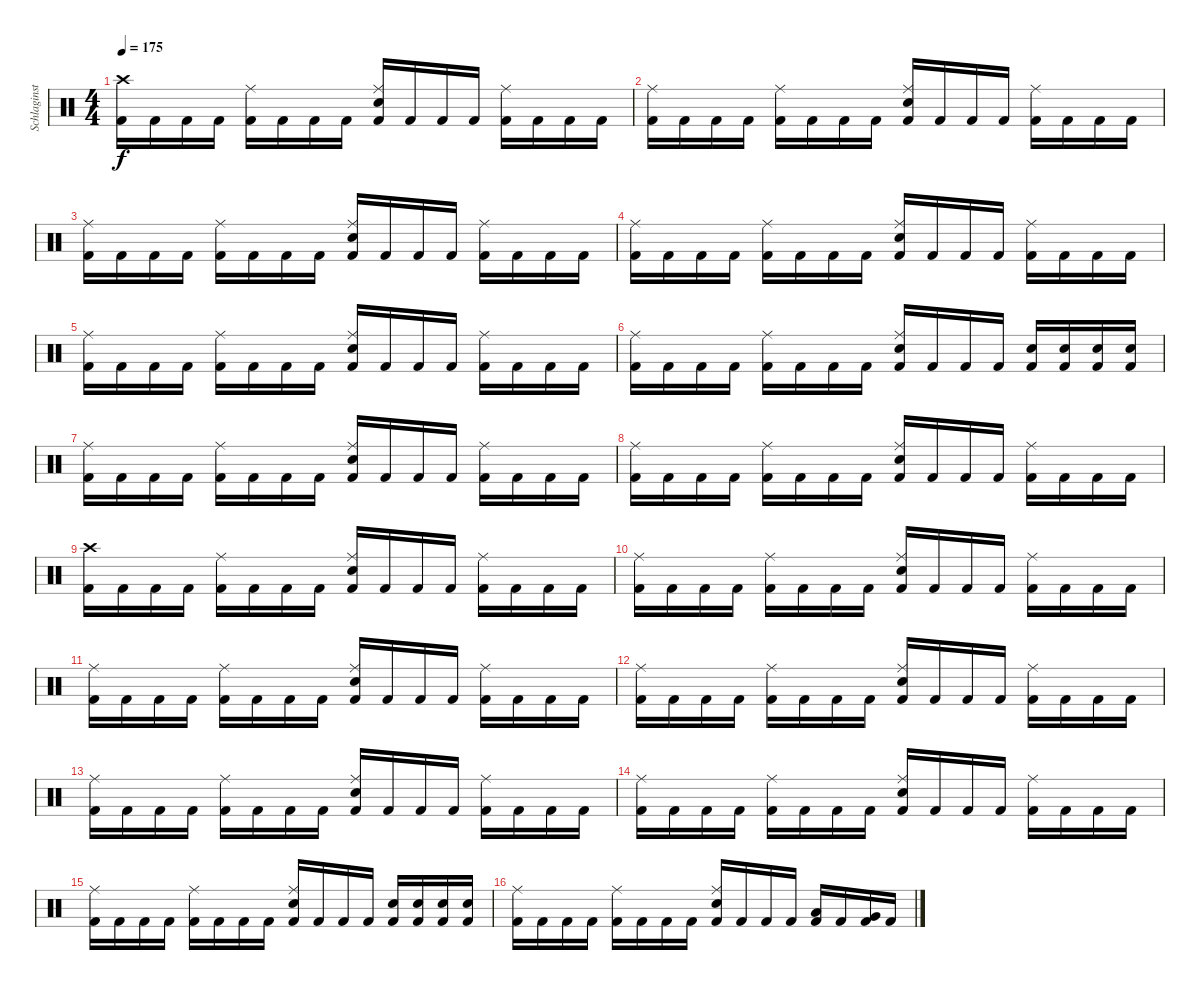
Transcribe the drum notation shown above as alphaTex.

\track ("Schlaginstrumente - Auswahl" "Schlaginst") {instrument percussion}
\staff {score}
\articulation defaults
\ts (4 4)
\tempo 175
\clef neutral
\ks c
("Crash high (hit)" "Kick (hit) 2").16{dy f} "Kick (hit) 2".16 "Kick (hit) 2".16 "Kick (hit) 2".16 ("Ride (middle)" "Kick (hit) 2").16 "Kick (hit) 2".16 "Kick (hit) 2".16 "Kick (hit) 2".16 ("Snare (hit) 2" "Ride (middle)" "Kick (hit) 2").16 "Kick (hit) 2".16 "Kick (hit) 2".16 "Kick (hit) 2".16 ("Ride (middle)" "Kick (hit) 2").16 "Kick (hit) 2".16 "Kick (hit) 2".16 "Kick (hit) 2".16 |
("Ride (middle)" "Kick (hit) 2").16 "Kick (hit) 2".16 "Kick (hit) 2".16 "Kick (hit) 2".16 ("Ride (middle)" "Kick (hit) 2").16 "Kick (hit) 2".16 "Kick (hit) 2".16 "Kick (hit) 2".16 ("Snare (hit) 2" "Ride (middle)" "Kick (hit) 2").16 "Kick (hit) 2".16 "Kick (hit) 2".16 "Kick (hit) 2".16 ("Ride (middle)" "Kick (hit) 2").16 "Kick (hit) 2".16 "Kick (hit) 2".16 "Kick (hit) 2".16 |
("Ride (middle)" "Kick (hit) 2").16 "Kick (hit) 2".16 "Kick (hit) 2".16 "Kick (hit) 2".16 ("Ride (middle)" "Kick (hit) 2").16 "Kick (hit) 2".16 "Kick (hit) 2".16 "Kick (hit) 2".16 ("Snare (hit) 2" "Ride (middle)" "Kick (hit) 2").16 "Kick (hit) 2".16 "Kick (hit) 2".16 "Kick (hit) 2".16 ("Ride (middle)" "Kick (hit) 2").16 "Kick (hit) 2".16 "Kick (hit) 2".16 "Kick (hit) 2".16 |
("Ride (middle)" "Kick (hit) 2").16 "Kick (hit) 2".16 "Kick (hit) 2".16 "Kick (hit) 2".16 ("Ride (middle)" "Kick (hit) 2").16 "Kick (hit) 2".16 "Kick (hit) 2".16 "Kick (hit) 2".16 ("Snare (hit) 2" "Ride (middle)" "Kick (hit) 2").16 "Kick (hit) 2".16 "Kick (hit) 2".16 "Kick (hit) 2".16 ("Ride (middle)" "Kick (hit) 2").16 "Kick (hit) 2".16 "Kick (hit) 2".16 "Kick (hit) 2".16 |
("Ride (middle)" "Kick (hit) 2").16 "Kick (hit) 2".16 "Kick (hit) 2".16 "Kick (hit) 2".16 ("Ride (middle)" "Kick (hit) 2").16 "Kick (hit) 2".16 "Kick (hit) 2".16 "Kick (hit) 2".16 ("Snare (hit) 2" "Ride (middle)" "Kick (hit) 2").16 "Kick (hit) 2".16 "Kick (hit) 2".16 "Kick (hit) 2".16 ("Ride (middle)" "Kick (hit) 2").16 "Kick (hit) 2".16 "Kick (hit) 2".16 "Kick (hit) 2".16 |
("Ride (middle)" "Kick (hit) 2").16 "Kick (hit) 2".16 "Kick (hit) 2".16 "Kick (hit) 2".16 ("Ride (middle)" "Kick (hit) 2").16 "Kick (hit) 2".16 "Kick (hit) 2".16 "Kick (hit) 2".16 ("Snare (hit) 2" "Ride (middle)" "Kick (hit) 2").16 "Kick (hit) 2".16 "Kick (hit) 2".16 "Kick (hit) 2".16 ("Snare (hit) 2" "Kick (hit) 2").16 ("Snare (hit) 2" "Kick (hit) 2").16 ("Snare (hit) 2" "Kick (hit) 2").16 ("Snare (hit) 2" "Kick (hit) 2").16 |
("Ride (middle)" "Kick (hit) 2").16 "Kick (hit) 2".16 "Kick (hit) 2".16 "Kick (hit) 2".16 ("Ride (middle)" "Kick (hit) 2").16 "Kick (hit) 2".16 "Kick (hit) 2".16 "Kick (hit) 2".16 ("Snare (hit) 2" "Ride (middle)" "Kick (hit) 2").16 "Kick (hit) 2".16 "Kick (hit) 2".16 "Kick (hit) 2".16 ("Ride (middle)" "Kick (hit) 2").16 "Kick (hit) 2".16 "Kick (hit) 2".16 "Kick (hit) 2".16 |
("Ride (middle)" "Kick (hit) 2").16 "Kick (hit) 2".16 "Kick (hit) 2".16 "Kick (hit) 2".16 ("Ride (middle)" "Kick (hit) 2").16 "Kick (hit) 2".16 "Kick (hit) 2".16 "Kick (hit) 2".16 ("Snare (hit) 2" "Ride (middle)" "Kick (hit) 2").16 "Kick (hit) 2".16 "Kick (hit) 2".16 "Kick (hit) 2".16 ("Ride (middle)" "Kick (hit) 2").16 "Kick (hit) 2".16 "Kick (hit) 2".16 "Kick (hit) 2".16 |
("Crash high (hit)" "Kick (hit) 2").16 "Kick (hit) 2".16 "Kick (hit) 2".16 "Kick (hit) 2".16 ("Ride (middle)" "Kick (hit) 2").16 "Kick (hit) 2".16 "Kick (hit) 2".16 "Kick (hit) 2".16 ("Snare (hit) 2" "Ride (middle)" "Kick (hit) 2").16 "Kick (hit) 2".16 "Kick (hit) 2".16 "Kick (hit) 2".16 ("Ride (middle)" "Kick (hit) 2").16 "Kick (hit) 2".16 "Kick (hit) 2".16 "Kick (hit) 2".16 |
("Ride (middle)" "Kick (hit) 2").16 "Kick (hit) 2".16 "Kick (hit) 2".16 "Kick (hit) 2".16 ("Ride (middle)" "Kick (hit) 2").16 "Kick (hit) 2".16 "Kick (hit) 2".16 "Kick (hit) 2".16 ("Snare (hit) 2" "Ride (middle)" "Kick (hit) 2").16 "Kick (hit) 2".16 "Kick (hit) 2".16 "Kick (hit) 2".16 ("Ride (middle)" "Kick (hit) 2").16 "Kick (hit) 2".16 "Kick (hit) 2".16 "Kick (hit) 2".16 |
("Ride (middle)" "Kick (hit) 2").16 "Kick (hit) 2".16 "Kick (hit) 2".16 "Kick (hit) 2".16 ("Ride (middle)" "Kick (hit) 2").16 "Kick (hit) 2".16 "Kick (hit) 2".16 "Kick (hit) 2".16 ("Snare (hit) 2" "Ride (middle)" "Kick (hit) 2").16 "Kick (hit) 2".16 "Kick (hit) 2".16 "Kick (hit) 2".16 ("Ride (middle)" "Kick (hit) 2").16 "Kick (hit) 2".16 "Kick (hit) 2".16 "Kick (hit) 2".16 |
("Ride (middle)" "Kick (hit) 2").16 "Kick (hit) 2".16 "Kick (hit) 2".16 "Kick (hit) 2".16 ("Ride (middle)" "Kick (hit) 2").16 "Kick (hit) 2".16 "Kick (hit) 2".16 "Kick (hit) 2".16 ("Snare (hit) 2" "Ride (middle)" "Kick (hit) 2").16 "Kick (hit) 2".16 "Kick (hit) 2".16 "Kick (hit) 2".16 ("Ride (middle)" "Kick (hit) 2").16 "Kick (hit) 2".16 "Kick (hit) 2".16 "Kick (hit) 2".16 |
("Ride (middle)" "Kick (hit) 2").16 "Kick (hit) 2".16 "Kick (hit) 2".16 "Kick (hit) 2".16 ("Ride (middle)" "Kick (hit) 2").16 "Kick (hit) 2".16 "Kick (hit) 2".16 "Kick (hit) 2".16 ("Snare (hit) 2" "Ride (middle)" "Kick (hit) 2").16 "Kick (hit) 2".16 "Kick (hit) 2".16 "Kick (hit) 2".16 ("Ride (middle)" "Kick (hit) 2").16 "Kick (hit) 2".16 "Kick (hit) 2".16 "Kick (hit) 2".16 |
("Ride (middle)" "Kick (hit) 2").16 "Kick (hit) 2".16 "Kick (hit) 2".16 "Kick (hit) 2".16 ("Ride (middle)" "Kick (hit) 2").16 "Kick (hit) 2".16 "Kick (hit) 2".16 "Kick (hit) 2".16 ("Snare (hit) 2" "Ride (middle)" "Kick (hit) 2").16 "Kick (hit) 2".16 "Kick (hit) 2".16 "Kick (hit) 2".16 ("Ride (middle)" "Kick (hit) 2").16 "Kick (hit) 2".16 "Kick (hit) 2".16 "Kick (hit) 2".16 |
("Ride (middle)" "Kick (hit) 2").16 "Kick (hit) 2".16 "Kick (hit) 2".16 "Kick (hit) 2".16 ("Ride (middle)" "Kick (hit) 2").16 "Kick (hit) 2".16 "Kick (hit) 2".16 "Kick (hit) 2".16 ("Snare (hit) 2" "Ride (middle)" "Kick (hit) 2").16 "Kick (hit) 2".16 "Kick (hit) 2".16 "Kick (hit) 2".16 ("Snare (hit) 2" "Kick (hit) 2").16 ("Snare (hit) 2" "Kick (hit) 2").16 ("Snare (hit) 2" "Kick (hit) 2").16 ("Snare (hit) 2" "Kick (hit) 2").16 |
("Ride (middle)" "Kick (hit) 2").16 "Kick (hit) 2".16 "Kick (hit) 2".16 "Kick (hit) 2".16 ("Ride (middle)" "Kick (hit) 2").16 "Kick (hit) 2".16 "Kick (hit) 2".16 "Kick (hit) 2".16 ("Snare (hit) 2" "Ride (middle)" "Kick (hit) 2").16 "Kick (hit) 2".16 "Kick (hit) 2".16 "Kick (hit) 2".16 ("Low Tom (hit)" "Kick (hit) 2").16 "Kick (hit) 2".16 ("Very Low Tom (hit)" "Kick (hit) 2").16 "Kick (hit) 2".16
